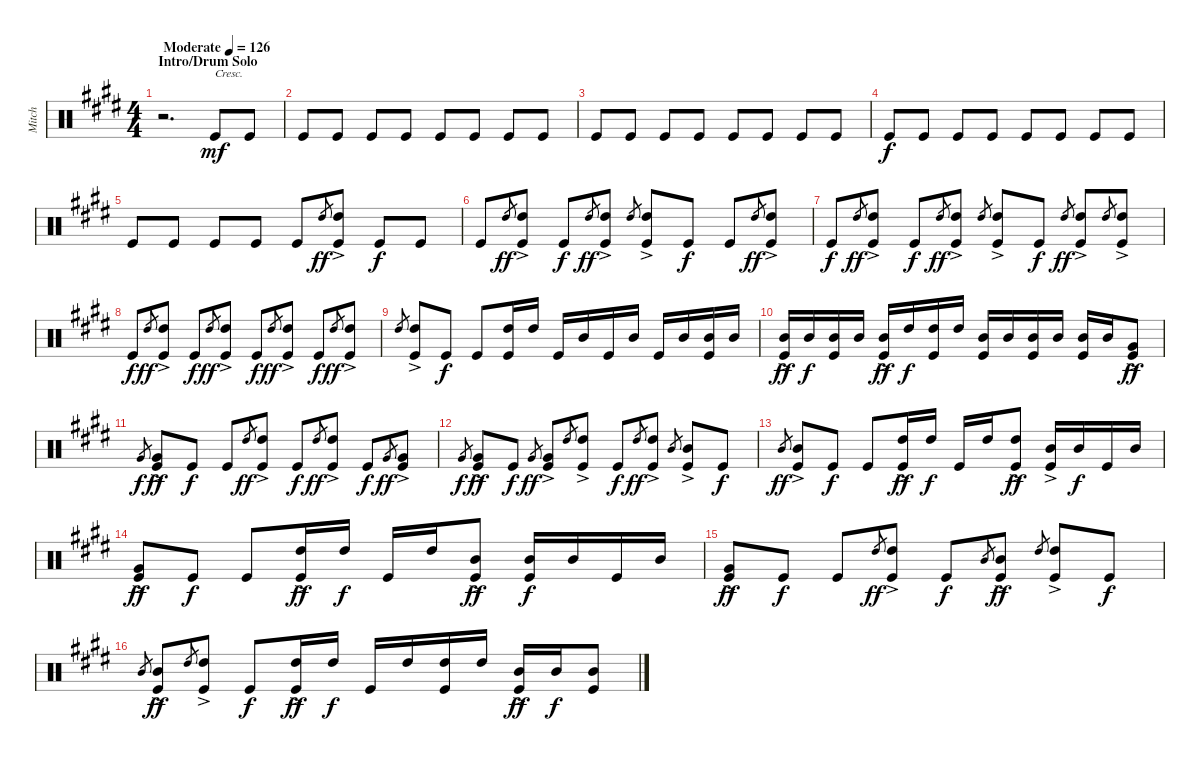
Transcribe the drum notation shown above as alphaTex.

\track ("Mitch" "Mitch") {instrument percussion}
\staff {score}
\articulation defaults
\ts (4 4)
\section ("" "Intro/Drum Solo")
\tempo (126 "Moderate")
\clef neutral
\ks e
r.2{d dy mf} "Kick (hit)".8{txt "Cresc."} "Kick (hit)".8 |
"Kick (hit)".8 "Kick (hit)".8 "Kick (hit)".8 "Kick (hit)".8 "Kick (hit)".8 "Kick (hit)".8 "Kick (hit)".8 "Kick (hit)".8 |
"Kick (hit)".8 "Kick (hit)".8 "Kick (hit)".8 "Kick (hit)".8 "Kick (hit)".8 "Kick (hit)".8 "Kick (hit)".8 "Kick (hit)".8 |
"Kick (hit)".8{dy f} "Kick (hit)".8 "Kick (hit)".8 "Kick (hit)".8 "Kick (hit)".8 "Kick (hit)".8 "Kick (hit)".8 "Kick (hit)".8 |
"Kick (hit)".8 "Kick (hit)".8 "Kick (hit)".8 "Kick (hit)".8 "Kick (hit)".8 "High Tom (hit)"{h}.8{gr dy ff} ("High Tom (hit)"{ac} "Kick (hit)").8 "Kick (hit)".8{dy f} "Kick (hit)".8 |
"Kick (hit)".8 "High Tom (hit)"{h}.8{gr dy ff} ("High Tom (hit)"{ac} "Kick (hit)").8 "Kick (hit)".8{dy f} "High Tom (hit)"{h}.8{gr dy ff} ("High Tom (hit)"{ac} "Kick (hit)").8 "High Tom (hit)"{h}.8{gr} ("High Tom (hit)"{ac} "Kick (hit)").8 "Kick (hit)".8{dy f} "Kick (hit)".8 "High Tom (hit)"{h}.8{gr dy ff} ("High Tom (hit)"{ac} "Kick (hit)").8 |
"Kick (hit)".8{dy f} "High Tom (hit)"{h}.8{gr dy ff} ("High Tom (hit)"{ac} "Kick (hit)").8 "Kick (hit)".8{dy f} "High Tom (hit)"{h}.8{gr dy ff} ("High Tom (hit)"{ac} "Kick (hit)").8 "High Tom (hit)"{h}.8{gr} ("High Tom (hit)"{ac} "Kick (hit)").8 "Kick (hit)".8{dy f} "High Tom (hit)"{h}.8{gr dy ff} ("High Tom (hit)"{ac} "Kick (hit)").8 "High Tom (hit)"{h}.8{gr} ("High Tom (hit)"{ac} "Kick (hit)").8 |
"Kick (hit)".8{dy f} "High Tom (hit)"{h}.8{gr dy ff} ("High Tom (hit)"{ac} "Kick (hit)").8 "Kick (hit)".8{dy f} "High Tom (hit)"{h}.8{gr dy ff} ("High Tom (hit)"{ac} "Kick (hit)").8 "Kick (hit)".8{dy f} "High Tom (hit)"{h}.8{gr dy ff} ("High Tom (hit)"{ac} "Kick (hit)").8 "Kick (hit)".8{dy f} "High Tom (hit)"{h}.8{gr dy ff} ("High Tom (hit)"{ac} "Kick (hit)").8 |
"High Tom (hit)"{h}.8{gr} ("High Tom (hit)"{ac} "Kick (hit)").8 "Kick (hit)".8{dy f} "Kick (hit)".8 ("High Tom (hit)" "Kick (hit)").16 "High Tom (hit)".16 "Kick (hit)".16 "Mid Tom (hit)".16 "Kick (hit)".16 "Mid Tom (hit)".16 "Kick (hit)".16 "Mid Tom (hit)".16 ("Mid Tom (hit)" "Kick (hit)").16 "Mid Tom (hit)".16 |
("Mid Tom (hit)"{ac} "Kick (hit)").16{dy ff} "Mid Tom (hit)".16{dy f} ("Mid Tom (hit)" "Kick (hit)").16 "Mid Tom (hit)".16 ("Mid Tom (hit)"{ac} "Kick (hit)").16{dy ff} "High Tom (hit)".16{dy f} ("High Tom (hit)" "Kick (hit)").16 "High Tom (hit)".16 ("Mid Tom (hit)" "Kick (hit)").16 "Mid Tom (hit)".16 ("Mid Tom (hit)" "Kick (hit)").16 "Mid Tom (hit)".16 ("Mid Tom (hit)" "Kick (hit)").16 "Mid Tom (hit)".16 ("Very Low Tom (hit)"{ac} "Kick (hit)").8{dy ff} |
"Very Low Tom (hit)".8{gr dy f} ("Very Low Tom (hit)"{ac} "Kick (hit)").8{dy ff} "Kick (hit)".8{dy f} "Kick (hit)".8 "High Tom (hit)".8{gr dy ff} ("High Tom (hit)"{ac} "Kick (hit)").8 "Kick (hit)".8{dy f} "High Tom (hit)".8{gr dy ff} ("High Tom (hit)"{ac} "Kick (hit)").8 "Kick (hit)".8{dy f} "Very Low Tom (hit)".8{gr dy ff} ("Very Low Tom (hit)"{ac} "Kick (hit)").8 |
"Very Low Tom (hit)".8{gr dy f} ("Very Low Tom (hit)"{ac} "Kick (hit)").8{dy ff} "Kick (hit)".8{dy f} "Very Low Tom (hit)".8{gr dy ff} ("Very Low Tom (hit)"{ac} "Kick (hit)").8 "High Tom (hit)".8{gr} ("High Tom (hit)"{ac} "Kick (hit)").8 "Kick (hit)".8{dy f} "High Tom (hit)".8{gr dy ff} ("High Tom (hit)"{ac} "Kick (hit)").8 "Mid Tom (hit)".8{gr} ("Mid Tom (hit)"{ac} "Kick (hit)").8 "Kick (hit)".8{dy f} |
"Mid Tom (hit)".8{gr dy ff} ("Mid Tom (hit)"{ac} "Kick (hit)").8 "Kick (hit)".8{dy f} "Kick (hit)".8 ("High Tom (hit)"{ac} "Kick (hit)").16{dy ff} "High Tom (hit)".16{dy f} "Kick (hit)".16 "High Tom (hit)".16 ("High Tom (hit)"{ac} "Kick (hit)").8{dy ff} ("Mid Tom (hit)"{ac} "Kick (hit)").16 "Mid Tom (hit)".16{dy f} "Kick (hit)".16 "Mid Tom (hit)".16 |
("Very Low Tom (hit)"{ac} "Kick (hit)").8{dy ff} "Kick (hit)".8{dy f} "Kick (hit)".8 ("High Tom (hit)"{ac} "Kick (hit)").16{dy ff} "High Tom (hit)".16{dy f} "Kick (hit)".16 "High Tom (hit)".16 ("Mid Tom (hit)"{ac} "Kick (hit)").8{dy ff} ("Mid Tom (hit)" "Kick (hit)").16{dy f} "Mid Tom (hit)".16 "Kick (hit)".16 "Mid Tom (hit)".16 |
("Very Low Tom (hit)"{ac} "Kick (hit)").8{dy ff} "Kick (hit)".8{dy f} "Kick (hit)".8 "High Tom (hit)".8{gr dy ff} ("High Tom (hit)"{ac} "Kick (hit)").8 "Kick (hit)".8{dy f} "Mid Tom (hit)".8{gr} ("Mid Tom (hit)"{ac} "Kick (hit)").8{dy ff} "High Tom (hit)".8{gr} ("High Tom (hit)"{ac} "Kick (hit)").8 "Kick (hit)".8{dy f} |
"Mid Tom (hit)".8{gr} ("Mid Tom (hit)"{ac} "Kick (hit)").8{dy ff} "High Tom (hit)".8{gr} ("High Tom (hit)"{ac} "Kick (hit)").8 "Kick (hit)".8{dy f} ("High Tom (hit)"{ac} "Kick (hit)").16{dy ff} "High Tom (hit)".16{dy f} "Kick (hit)".16 "High Tom (hit)".16 ("High Tom (hit)" "Kick (hit)").16 "High Tom (hit)".16 ("Mid Tom (hit)"{ac} "Kick (hit)").16{dy ff} "Mid Tom (hit)".16{dy f} ("Mid Tom (hit)" "Kick (hit)").8
